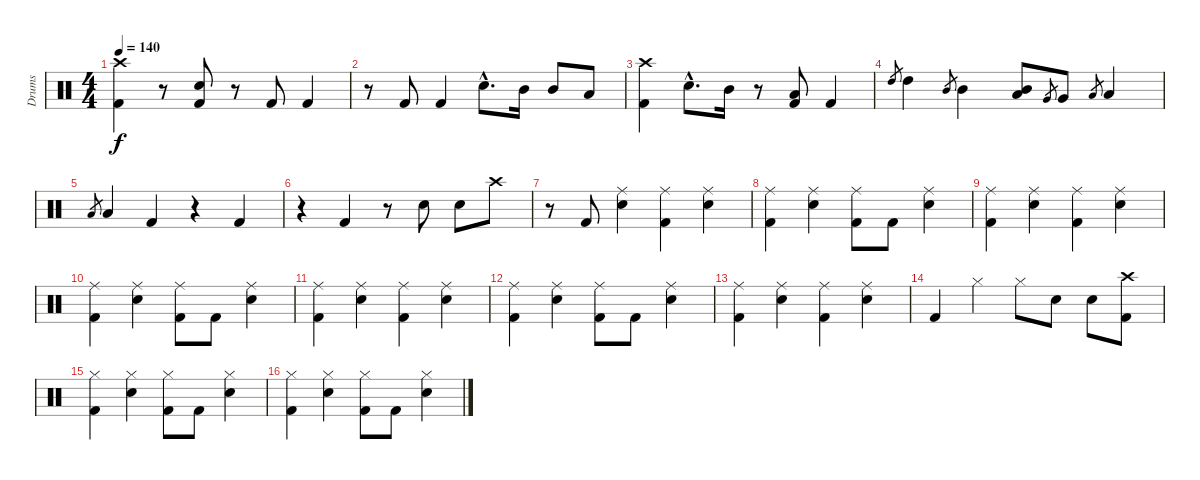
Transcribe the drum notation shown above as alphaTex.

\track ("Drums" "Drums") {instrument percussion}
\staff {score}
\articulation defaults
\ts (4 4)
\tempo 140
\clef neutral
\ks c
("Crash high (hit)" "Kick (hit) 2").4{dy f} r.8 ("Electric Snare (hit)" "Kick (hit) 2").8 r.8 "Kick (hit) 2".8 "Kick (hit) 2".4 |
r.8 "Kick (hit) 2".8 "Kick (hit) 2".4 "Electric Snare (hit)"{hac}.8{d} "Mid Tom (hit)".16 "Mid Tom (hit)".8 "Low Tom (hit)".8 |
("Crash high (hit)" "Kick (hit) 2").4 "Electric Snare (hit)"{hac}.8{d} "Mid Tom (hit)".16 r.8 ("Low Tom (hit)" "Kick (hit) 2").8 "Kick (hit) 2".4 |
"High Tom (hit)".8{gr} "High Tom (hit)".4 "Mid Tom (hit)".8{gr} "Mid Tom (hit)".4 ("Mid Tom (hit)" "Low Tom (hit)").8 "Very Low Tom (hit)".8{gr} "Very Low Tom (hit)".8 "Low Floor Tom (hit)".8{gr} "Low Floor Tom (hit)".4 |
"Low Floor Tom (hit)".8{gr} "Low Floor Tom (hit)".4 "Kick (hit) 2".4 r.4 "Kick (hit) 2".4 |
r.4 "Kick (hit) 2".4 r.8 "Electric Snare (hit)".8 "Electric Snare (hit)".8 "Crash high (hit)".8 |
r.8 "Kick (hit) 2".8 ("Ride (middle)" "Electric Snare (hit)").4 ("Ride (middle)" "Kick (hit) 2").4 ("Ride (middle)" "Electric Snare (hit)").4 |
("Ride (middle)" "Kick (hit) 2").4 ("Ride (middle)" "Electric Snare (hit)").4 ("Ride (middle)" "Kick (hit) 2").8 "Kick (hit) 2".8 ("Ride (middle)" "Electric Snare (hit)").4 |
("Ride (middle)" "Kick (hit) 2").4 ("Ride (middle)" "Electric Snare (hit)").4 ("Ride (middle)" "Kick (hit) 2").4 ("Ride (middle)" "Electric Snare (hit)").4 |
("Ride (middle)" "Kick (hit) 2").4 ("Ride (middle)" "Electric Snare (hit)").4 ("Ride (middle)" "Kick (hit) 2").8 "Kick (hit) 2".8 ("Ride (middle)" "Electric Snare (hit)").4 |
("Ride (middle)" "Kick (hit) 2").4 ("Ride (middle)" "Electric Snare (hit)").4 ("Ride (middle)" "Kick (hit) 2").4 ("Ride (middle)" "Electric Snare (hit)").4 |
("Ride (middle)" "Kick (hit) 2").4 ("Ride (middle)" "Electric Snare (hit)").4 ("Ride (middle)" "Kick (hit) 2").8 "Kick (hit) 2".8 ("Ride (middle)" "Electric Snare (hit)").4 |
("Ride (middle)" "Kick (hit) 2").4 ("Ride (middle)" "Electric Snare (hit)").4 ("Ride (middle)" "Kick (hit) 2").4 ("Ride (middle)" "Electric Snare (hit)").4 |
"Kick (hit) 2".4 "Hi-Hat (closed)".4 "Hi-Hat (closed)".8 "Electric Snare (hit)".8 "Electric Snare (hit)".8 ("Crash high (hit)" "Kick (hit) 2").8 |
("Hi-Hat (closed)" "Kick (hit) 2").4 ("Hi-Hat (closed)" "Electric Snare (hit)").4 ("Hi-Hat (closed)" "Kick (hit) 2").8 "Kick (hit) 2".8 ("Hi-Hat (closed)" "Electric Snare (hit)").4 |
("Hi-Hat (closed)" "Kick (hit) 2").4 ("Hi-Hat (closed)" "Electric Snare (hit)").4 ("Hi-Hat (closed)" "Kick (hit) 2").8 "Kick (hit) 2".8 ("Hi-Hat (closed)" "Electric Snare (hit)").4
